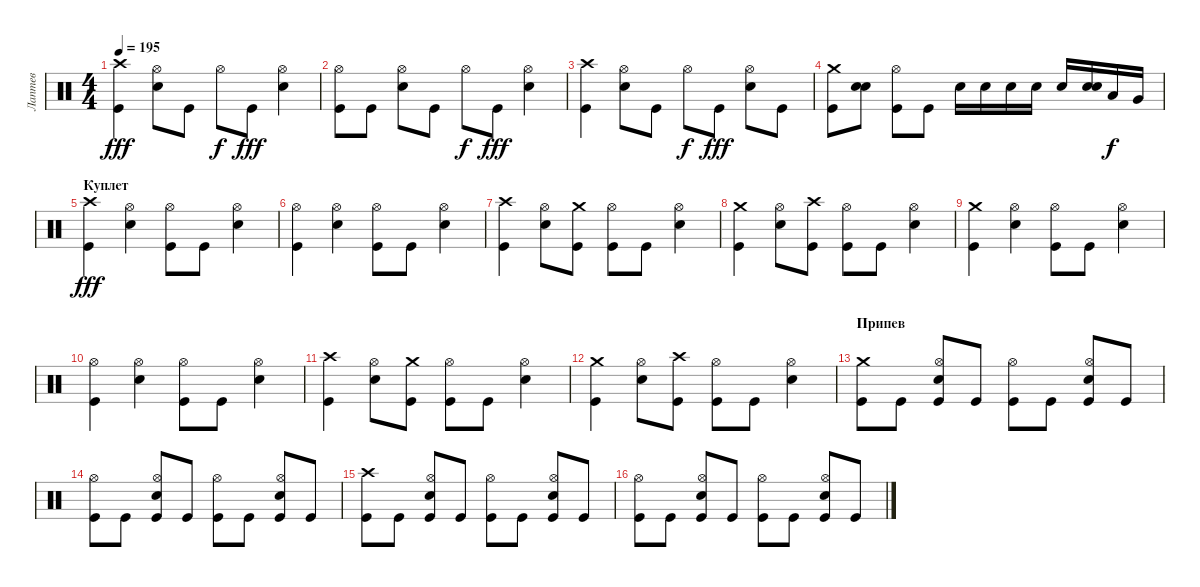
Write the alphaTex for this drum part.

\track ("Лаптев" "Лаптев") {instrument percussion}
\staff {score}
\articulation defaults
\ts (4 4)
\tempo 195
\clef neutral
\ks c
("Crash high (hit)" "Kick (hit)").4{dy fff} ("Hi-Hat (open)" "Electric Snare (hit)").8 "Kick (hit)".8 "Hi-Hat (open)".8{dy f} "Kick (hit)".8{dy fff} ("Hi-Hat (open)" "Electric Snare (hit)").4 |
("Hi-Hat (open)" "Kick (hit)").8 "Kick (hit)".8 ("Hi-Hat (open)" "Electric Snare (hit)").8 "Kick (hit)".8 "Hi-Hat (open)".8{dy f} "Kick (hit)".8{dy fff} ("Hi-Hat (open)" "Electric Snare (hit)").4 |
("Crash high (hit)" "Kick (hit)").4 ("Hi-Hat (open)" "Electric Snare (hit)").8 "Kick (hit)".8 "Hi-Hat (open)".8{dy f} "Kick (hit)".8{dy fff} ("Hi-Hat (open)" "Electric Snare (hit)").8 "Kick (hit)".8 |
("Crash medium (hit)" "Kick (hit)").8 ("Electric Snare (hit)" "Electric Snare (hit)").8 ("Hi-Hat (open)" "Kick (hit)").8 "Kick (hit)".8 "Electric Snare (hit)".16 "Electric Snare (hit)".16 "Electric Snare (hit)".16 "Electric Snare (hit)".16 "Electric Snare (hit)".16 ("Electric Snare (hit)" "Electric Snare (hit)").16 "Low Tom (hit)".16{dy f} "Very Low Tom (hit)".16 |
\section ("" "Куплет")
("Crash high (hit)" "Kick (hit)").4{dy fff} ("Hi-Hat (open)" "Electric Snare (hit)").4 ("Hi-Hat (open)" "Kick (hit)").8 "Kick (hit)".8 ("Hi-Hat (open)" "Electric Snare (hit)").4 |
("Hi-Hat (open)" "Kick (hit)").4 ("Hi-Hat (open)" "Electric Snare (hit)").4 ("Hi-Hat (open)" "Kick (hit)").8 "Kick (hit)".8 ("Hi-Hat (open)" "Electric Snare (hit)").4 |
("Crash high (hit)" "Kick (hit)").4 ("Hi-Hat (open)" "Electric Snare (hit)").8 ("Crash medium (hit)" "Kick (hit)").8 ("Hi-Hat (open)" "Kick (hit)").8 "Kick (hit)".8 ("Hi-Hat (open)" "Electric Snare (hit)").4 |
("Crash medium (hit)" "Kick (hit)").4 ("Hi-Hat (open)" "Electric Snare (hit)").8 ("Crash high (hit)" "Kick (hit)").8 ("Hi-Hat (open)" "Kick (hit)").8 "Kick (hit)".8 ("Hi-Hat (open)" "Electric Snare (hit)").4 |
("Crash medium (hit)" "Kick (hit)").4 ("Hi-Hat (open)" "Electric Snare (hit)").4 ("Hi-Hat (open)" "Kick (hit)").8 "Kick (hit)".8 ("Hi-Hat (open)" "Electric Snare (hit)").4 |
("Hi-Hat (open)" "Kick (hit)").4 ("Hi-Hat (open)" "Electric Snare (hit)").4 ("Hi-Hat (open)" "Kick (hit)").8 "Kick (hit)".8 ("Hi-Hat (open)" "Electric Snare (hit)").4 |
("Crash high (hit)" "Kick (hit)").4 ("Hi-Hat (open)" "Electric Snare (hit)").8 ("Crash medium (hit)" "Kick (hit)").8 ("Hi-Hat (open)" "Kick (hit)").8 "Kick (hit)".8 ("Hi-Hat (open)" "Electric Snare (hit)").4 |
("Crash medium (hit)" "Kick (hit)").4 ("Hi-Hat (open)" "Electric Snare (hit)").8 ("Crash high (hit)" "Kick (hit)").8 ("Hi-Hat (open)" "Kick (hit)").8 "Kick (hit)".8 ("Hi-Hat (open)" "Electric Snare (hit)").4 |
\section ("" "Припев")
("Crash medium (hit)" "Kick (hit)").8 "Kick (hit)".8 ("Hi-Hat (open)" "Electric Snare (hit)" "Kick (hit)").8 "Kick (hit)".8 ("Hi-Hat (open)" "Kick (hit)").8 "Kick (hit)".8 ("Hi-Hat (open)" "Electric Snare (hit)" "Kick (hit)").8 "Kick (hit)".8 |
("Hi-Hat (open)" "Kick (hit)").8 "Kick (hit)".8 ("Hi-Hat (open)" "Electric Snare (hit)" "Kick (hit)").8 "Kick (hit)".8 ("Hi-Hat (open)" "Kick (hit)").8 "Kick (hit)".8 ("Hi-Hat (open)" "Electric Snare (hit)" "Kick (hit)").8 "Kick (hit)".8 |
("Crash high (hit)" "Kick (hit)").8 "Kick (hit)".8 ("Hi-Hat (open)" "Electric Snare (hit)" "Kick (hit)").8 "Kick (hit)".8 ("Hi-Hat (open)" "Kick (hit)").8 "Kick (hit)".8 ("Hi-Hat (open)" "Electric Snare (hit)" "Kick (hit)").8 "Kick (hit)".8 |
("Hi-Hat (open)" "Kick (hit)").8 "Kick (hit)".8 ("Hi-Hat (open)" "Electric Snare (hit)" "Kick (hit)").8 "Kick (hit)".8 ("Hi-Hat (open)" "Kick (hit)").8 "Kick (hit)".8 ("Hi-Hat (open)" "Electric Snare (hit)" "Kick (hit)").8 "Kick (hit)".8
